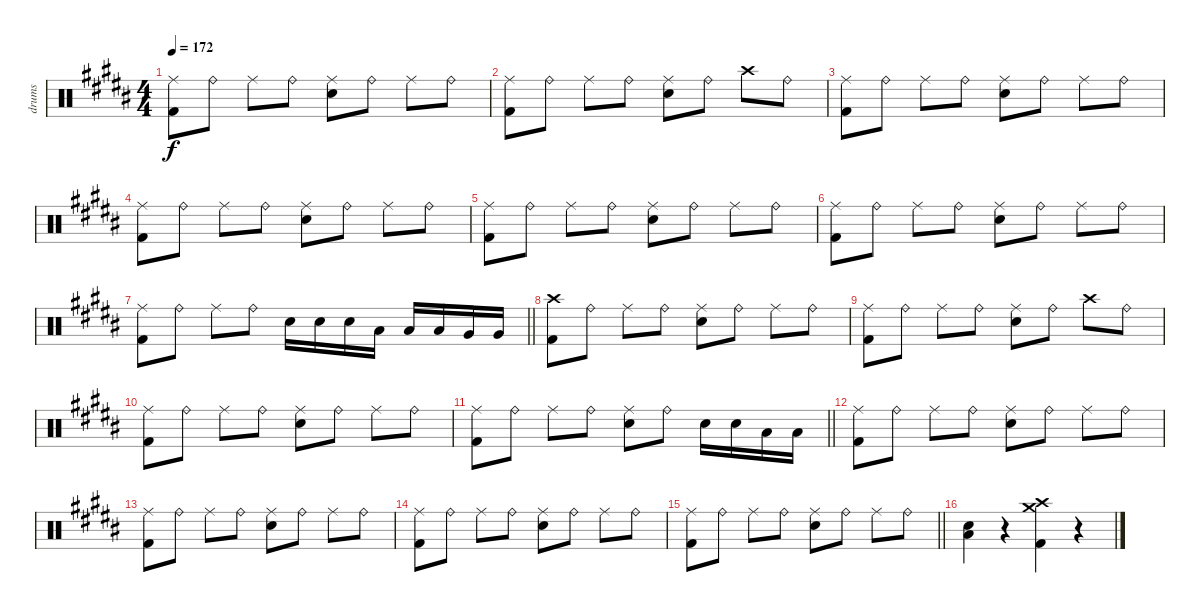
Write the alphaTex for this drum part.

\track ("drums" "drums") {instrument percussion}
\staff {score}
\articulation defaults
\ts (4 4)
\tempo 172
\clef neutral
\ks g#minor
("Ride (middle)" "Kick (hit) 2").8{dy f} "Ride (bell)".8 "Ride (middle)".8 "Ride (bell)".8 ("Ride (middle)" "Electric Snare (hit)").8 "Ride (bell)".8 "Ride (middle)".8 "Ride (bell)".8 |
\ks b
("Ride (middle)" "Kick (hit) 2").8 "Ride (bell)".8 "Ride (middle)".8 "Ride (bell)".8 ("Ride (middle)" "Electric Snare (hit)").8 "Ride (bell)".8 "Crash high (hit)".8 "Ride (bell)".8 |
\ks g#minor
("Ride (middle)" "Kick (hit) 2").8 "Ride (bell)".8 "Ride (middle)".8 "Ride (bell)".8 ("Ride (middle)" "Electric Snare (hit)").8 "Ride (bell)".8 "Ride (middle)".8 "Ride (bell)".8 |
\ks b
("Ride (middle)" "Kick (hit) 2").8 "Ride (bell)".8 "Ride (middle)".8 "Ride (bell)".8 ("Ride (middle)" "Electric Snare (hit)").8 "Ride (bell)".8 "Ride (middle)".8 "Ride (bell)".8 |
\ks g#minor
("Ride (middle)" "Kick (hit) 2").8 "Ride (bell)".8 "Ride (middle)".8 "Ride (bell)".8 ("Ride (middle)" "Electric Snare (hit)").8 "Ride (bell)".8 "Ride (middle)".8 "Ride (bell)".8 |
\ks b
("Ride (middle)" "Kick (hit) 2").8 "Ride (bell)".8 "Ride (middle)".8 "Ride (bell)".8 ("Ride (middle)" "Electric Snare (hit)").8 "Ride (bell)".8 "Ride (middle)".8 "Ride (bell)".8 |
\barLineRight lightlight
\ks g#minor
("Ride (middle)" "Kick (hit) 2").8 "Ride (bell)".8 "Ride (middle)".8 "Ride (bell)".8 "Electric Snare (hit)".16 "Electric Snare (hit)".16 "Electric Snare (hit)".16 "Low Tom (hit)".16 "Low Tom (hit)".16 "Low Tom (hit)".16 "Very Low Tom (hit)".16 "Very Low Tom (hit)".16 |
\ks b
("Crash high (hit)" "Kick (hit) 2").8 "Ride (bell)".8 "Ride (middle)".8 "Ride (bell)".8 ("Ride (middle)" "Electric Snare (hit)").8 "Ride (bell)".8 "Ride (middle)".8 "Ride (bell)".8 |
\ks g#minor
("Ride (middle)" "Kick (hit) 2").8 "Ride (bell)".8 "Ride (middle)".8 "Ride (bell)".8 ("Ride (middle)" "Electric Snare (hit)").8 "Ride (bell)".8 "Crash high (hit)".8 "Ride (bell)".8 |
\ks b
("Ride (middle)" "Kick (hit) 2").8 "Ride (bell)".8 "Ride (middle)".8 "Ride (bell)".8 ("Ride (middle)" "Electric Snare (hit)").8 "Ride (bell)".8 "Ride (middle)".8 "Ride (bell)".8 |
\barLineRight lightlight
\ks g#minor
("Ride (middle)" "Kick (hit) 2").8 "Ride (bell)".8 "Ride (middle)".8 "Ride (bell)".8 ("Ride (middle)" "Electric Snare (hit)").8 "Ride (bell)".8 "Electric Snare (hit)".16 "Electric Snare (hit)".16 "Low Tom (hit)".16 "Low Tom (hit)".16 |
\ks b
("Ride (middle)" "Kick (hit) 2").8 "Ride (bell)".8 "Ride (middle)".8 "Ride (bell)".8 ("Ride (middle)" "Electric Snare (hit)").8 "Ride (bell)".8 "Ride (middle)".8 "Ride (bell)".8 |
\ks g#minor
("Ride (middle)" "Kick (hit) 2").8 "Ride (bell)".8 "Ride (middle)".8 "Ride (bell)".8 ("Ride (middle)" "Electric Snare (hit)").8 "Ride (bell)".8 "Ride (middle)".8 "Ride (bell)".8 |
\ks b
("Ride (middle)" "Kick (hit) 2").8 "Ride (bell)".8 "Ride (middle)".8 "Ride (bell)".8 ("Ride (middle)" "Electric Snare (hit)").8 "Ride (bell)".8 "Ride (middle)".8 "Ride (bell)".8 |
\barLineRight lightlight
\ks g#minor
("Ride (middle)" "Kick (hit) 2").8 "Ride (bell)".8 "Ride (middle)".8 "Ride (bell)".8 ("Ride (middle)" "Electric Snare (hit)").8 "Ride (bell)".8 "Ride (middle)".8 "Ride (bell)".8 |
\ks b
("Low Tom (hit)" "Electric Snare (hit)").4 r.4 ("Crash high (hit)" "Crash medium (hit)" "Kick (hit) 2").4 r.4
